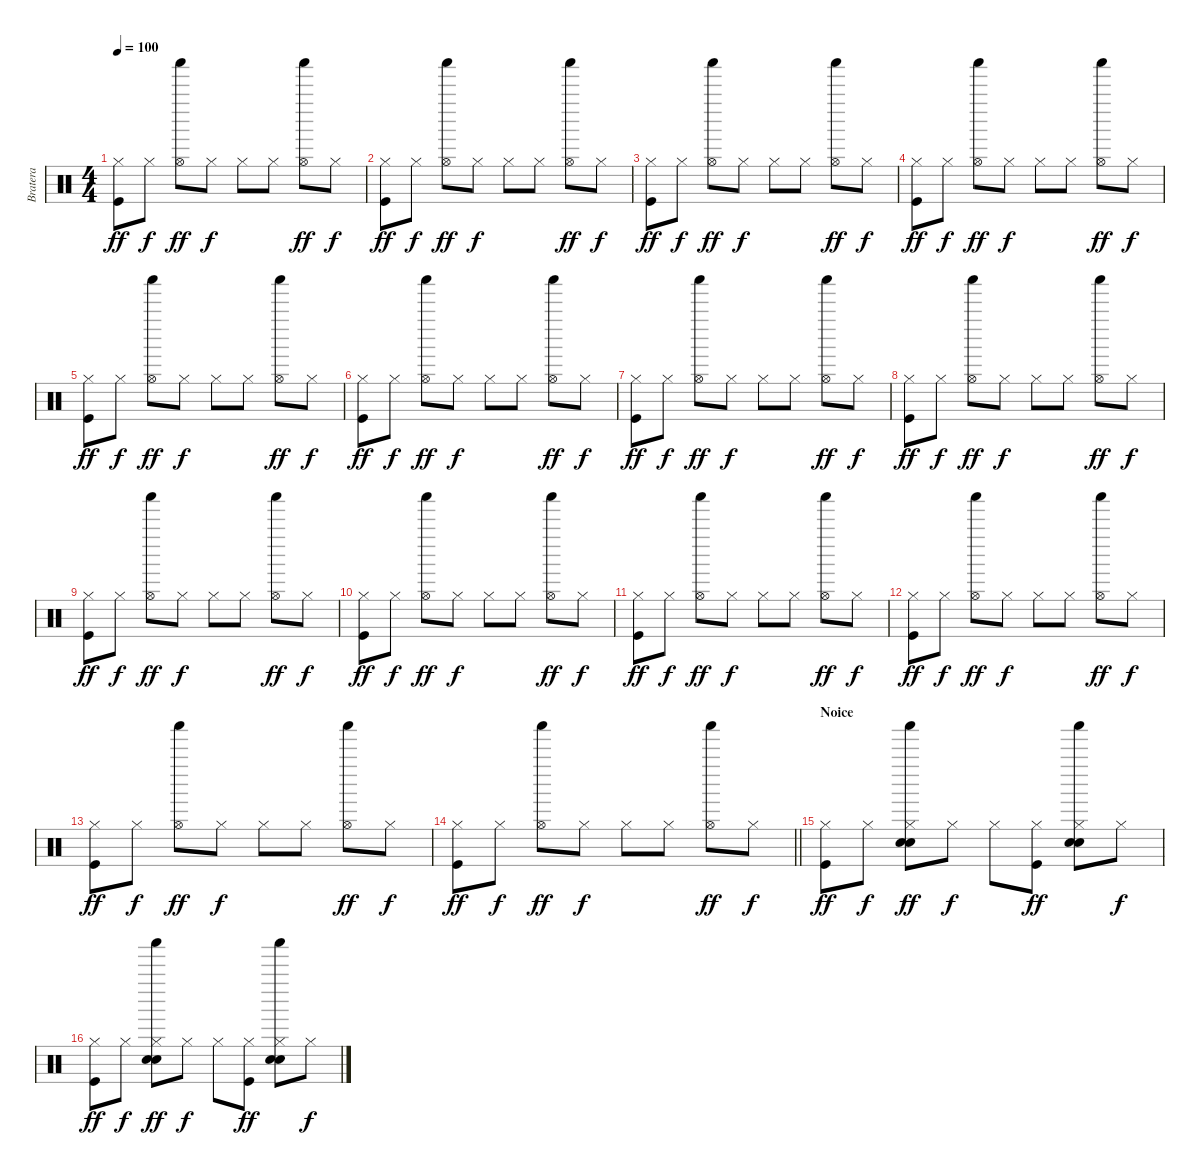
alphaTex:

\track ("Bratera" "Bratera") {instrument percussion}
\staff {score}
\articulation defaults
\ts (4 4)
\tempo 100
\clef neutral
\ks c
("Hi-Hat (closed)" "Kick (hit)").8{dy ff} "Hi-Hat (closed)".8{dy f} ("Hi-Hat (open)" "Shaker (hit)").8{dy ff} "Hi-Hat (closed)".8{dy f} "Hi-Hat (closed)".8 "Hi-Hat (closed)".8 ("Hi-Hat (open)" "Shaker (hit)").8{dy ff} "Hi-Hat (closed)".8{dy f} |
("Hi-Hat (closed)" "Kick (hit)").8{dy ff} "Hi-Hat (closed)".8{dy f} ("Hi-Hat (open)" "Shaker (hit)").8{dy ff} "Hi-Hat (closed)".8{dy f} "Hi-Hat (closed)".8 "Hi-Hat (closed)".8 ("Hi-Hat (open)" "Shaker (hit)").8{dy ff} "Hi-Hat (closed)".8{dy f} |
("Hi-Hat (closed)" "Kick (hit)").8{dy ff} "Hi-Hat (closed)".8{dy f} ("Hi-Hat (open)" "Shaker (hit)").8{dy ff} "Hi-Hat (closed)".8{dy f} "Hi-Hat (closed)".8 "Hi-Hat (closed)".8 ("Hi-Hat (open)" "Shaker (hit)").8{dy ff} "Hi-Hat (closed)".8{dy f} |
("Hi-Hat (closed)" "Kick (hit)").8{dy ff} "Hi-Hat (closed)".8{dy f} ("Hi-Hat (open)" "Shaker (hit)").8{dy ff} "Hi-Hat (closed)".8{dy f} "Hi-Hat (closed)".8 "Hi-Hat (closed)".8 ("Hi-Hat (open)" "Shaker (hit)").8{dy ff} "Hi-Hat (closed)".8{dy f} |
("Hi-Hat (closed)" "Kick (hit)").8{dy ff} "Hi-Hat (closed)".8{dy f} ("Hi-Hat (open)" "Shaker (hit)").8{dy ff} "Hi-Hat (closed)".8{dy f} "Hi-Hat (closed)".8 "Hi-Hat (closed)".8 ("Hi-Hat (open)" "Shaker (hit)").8{dy ff} "Hi-Hat (closed)".8{dy f} |
("Hi-Hat (closed)" "Kick (hit)").8{dy ff} "Hi-Hat (closed)".8{dy f} ("Hi-Hat (open)" "Shaker (hit)").8{dy ff} "Hi-Hat (closed)".8{dy f} "Hi-Hat (closed)".8 "Hi-Hat (closed)".8 ("Hi-Hat (open)" "Shaker (hit)").8{dy ff} "Hi-Hat (closed)".8{dy f} |
("Hi-Hat (closed)" "Kick (hit)").8{dy ff} "Hi-Hat (closed)".8{dy f} ("Hi-Hat (open)" "Shaker (hit)").8{dy ff} "Hi-Hat (closed)".8{dy f} "Hi-Hat (closed)".8 "Hi-Hat (closed)".8 ("Hi-Hat (open)" "Shaker (hit)").8{dy ff} "Hi-Hat (closed)".8{dy f} |
("Hi-Hat (closed)" "Kick (hit)").8{dy ff} "Hi-Hat (closed)".8{dy f} ("Hi-Hat (open)" "Shaker (hit)").8{dy ff} "Hi-Hat (closed)".8{dy f} "Hi-Hat (closed)".8 "Hi-Hat (closed)".8 ("Hi-Hat (open)" "Shaker (hit)").8{dy ff} "Hi-Hat (closed)".8{dy f} |
("Hi-Hat (closed)" "Kick (hit)").8{dy ff} "Hi-Hat (closed)".8{dy f} ("Hi-Hat (open)" "Shaker (hit)").8{dy ff} "Hi-Hat (closed)".8{dy f} "Hi-Hat (closed)".8 "Hi-Hat (closed)".8 ("Hi-Hat (open)" "Shaker (hit)").8{dy ff} "Hi-Hat (closed)".8{dy f} |
("Hi-Hat (closed)" "Kick (hit)").8{dy ff} "Hi-Hat (closed)".8{dy f} ("Hi-Hat (open)" "Shaker (hit)").8{dy ff} "Hi-Hat (closed)".8{dy f} "Hi-Hat (closed)".8 "Hi-Hat (closed)".8 ("Hi-Hat (open)" "Shaker (hit)").8{dy ff} "Hi-Hat (closed)".8{dy f} |
("Hi-Hat (closed)" "Kick (hit)").8{dy ff} "Hi-Hat (closed)".8{dy f} ("Hi-Hat (open)" "Shaker (hit)").8{dy ff} "Hi-Hat (closed)".8{dy f} "Hi-Hat (closed)".8 "Hi-Hat (closed)".8 ("Hi-Hat (open)" "Shaker (hit)").8{dy ff} "Hi-Hat (closed)".8{dy f} |
("Hi-Hat (closed)" "Kick (hit)").8{dy ff} "Hi-Hat (closed)".8{dy f} ("Hi-Hat (open)" "Shaker (hit)").8{dy ff} "Hi-Hat (closed)".8{dy f} "Hi-Hat (closed)".8 "Hi-Hat (closed)".8 ("Hi-Hat (open)" "Shaker (hit)").8{dy ff} "Hi-Hat (closed)".8{dy f} |
("Hi-Hat (closed)" "Kick (hit)").8{dy ff} "Hi-Hat (closed)".8{dy f} ("Hi-Hat (open)" "Shaker (hit)").8{dy ff} "Hi-Hat (closed)".8{dy f} "Hi-Hat (closed)".8 "Hi-Hat (closed)".8 ("Hi-Hat (open)" "Shaker (hit)").8{dy ff} "Hi-Hat (closed)".8{dy f} |
\barLineRight lightlight
("Hi-Hat (closed)" "Kick (hit)").8{dy ff} "Hi-Hat (closed)".8{dy f} ("Hi-Hat (open)" "Shaker (hit)").8{dy ff} "Hi-Hat (closed)".8{dy f} "Hi-Hat (closed)".8 "Hi-Hat (closed)".8 ("Hi-Hat (open)" "Shaker (hit)").8{dy ff} "Hi-Hat (closed)".8{dy f} |
\section ("" "Noice")
("Hi-Hat (closed)" "Kick (hit)").8{dy ff} "Hi-Hat (closed)".8{dy f} ("Hi-Hat (closed)" "Shaker (hit)" "Snare (hit) 2" "Electric Snare (hit)").8{dy ff} "Hi-Hat (closed)".8{dy f} "Hi-Hat (closed)".8 ("Hi-Hat (closed)" "Kick (hit)").8{dy ff} ("Hi-Hat (closed)" "Shaker (hit)" "Snare (hit) 2" "Electric Snare (hit)").8 "Hi-Hat (closed)".8{dy f} |
("Hi-Hat (closed)" "Kick (hit)").8{dy ff} "Hi-Hat (closed)".8{dy f} ("Hi-Hat (closed)" "Shaker (hit)" "Snare (hit) 2" "Electric Snare (hit)").8{dy ff} "Hi-Hat (closed)".8{dy f} "Hi-Hat (closed)".8 ("Hi-Hat (closed)" "Kick (hit)").8{dy ff} ("Hi-Hat (closed)" "Shaker (hit)" "Snare (hit) 2" "Electric Snare (hit)").8 "Hi-Hat (closed)".8{dy f}
